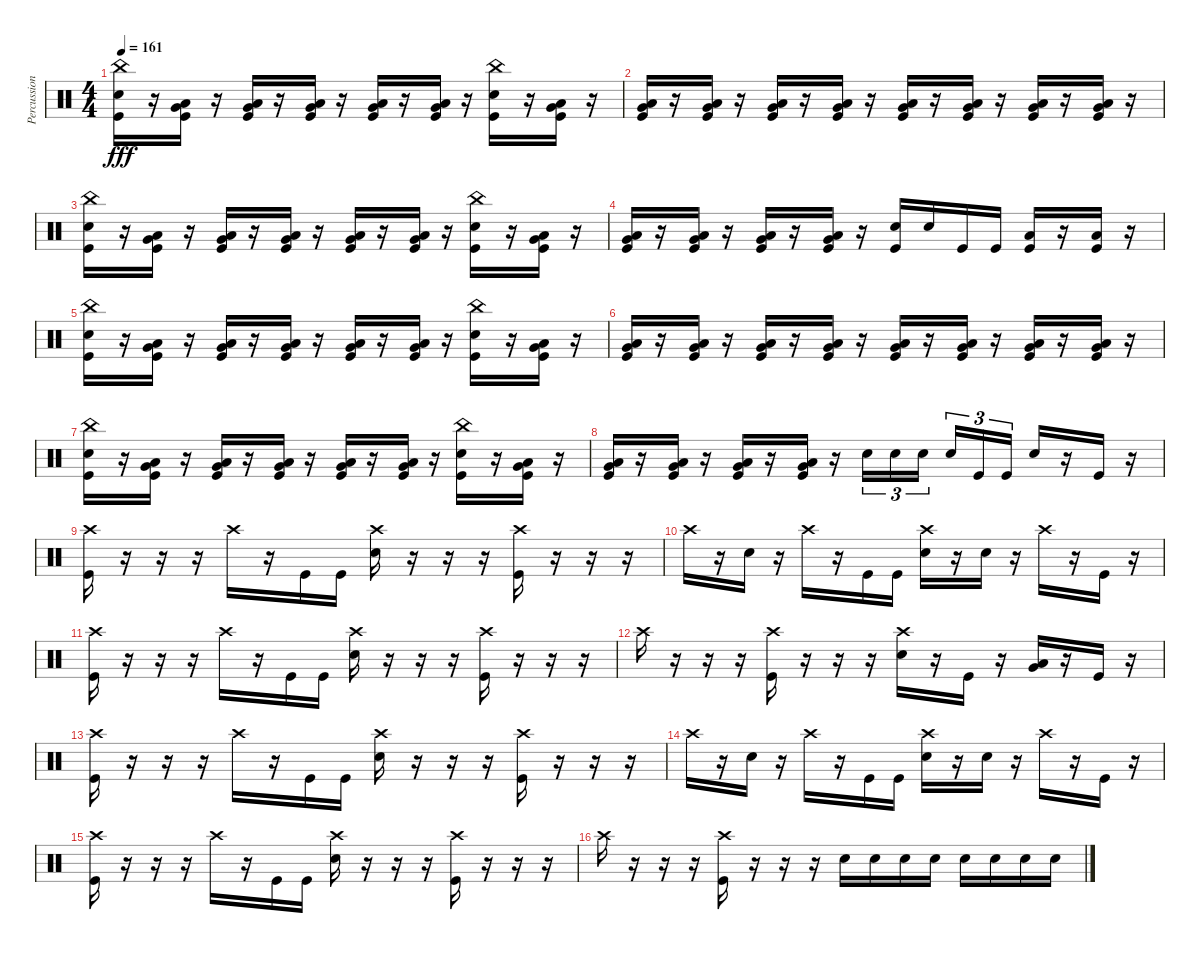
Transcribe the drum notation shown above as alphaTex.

\track ("Percussion" "Percussion") {instrument percussion}
\staff {score}
\articulation defaults
\ts (4 4)
\tempo 161
\clef neutral
\ks c
("China (hit)" "Electric Snare (hit)" "Kick (hit)").16{dy fff} r.16 ("Very Low Tom (hit)" "Low Tom (hit)" "Kick (hit)").16 r.16 ("Very Low Tom (hit)" "Low Tom (hit)" "Kick (hit)").16 r.16 ("Very Low Tom (hit)" "Low Tom (hit)" "Kick (hit)").16 r.16 ("Very Low Tom (hit)" "Low Tom (hit)" "Kick (hit)").16 r.16 ("Very Low Tom (hit)" "Low Tom (hit)" "Kick (hit)").16 r.16 ("China (hit)" "Electric Snare (hit)" "Kick (hit)").16 r.16 ("Very Low Tom (hit)" "Low Tom (hit)" "Kick (hit)").16 r.16 |
("Very Low Tom (hit)" "Low Tom (hit)" "Kick (hit)").16 r.16 ("Very Low Tom (hit)" "Low Tom (hit)" "Kick (hit)").16 r.16 ("Very Low Tom (hit)" "Low Tom (hit)" "Kick (hit)").16 r.16 ("Very Low Tom (hit)" "Low Tom (hit)" "Kick (hit)").16 r.16 ("Very Low Tom (hit)" "Low Tom (hit)" "Kick (hit)").16 r.16 ("Very Low Tom (hit)" "Low Tom (hit)" "Kick (hit)").16 r.16 ("Very Low Tom (hit)" "Low Tom (hit)" "Kick (hit)").16 r.16 ("Very Low Tom (hit)" "Low Tom (hit)" "Kick (hit)").16 r.16 |
("China (hit)" "Electric Snare (hit)" "Kick (hit)").16 r.16 ("Very Low Tom (hit)" "Low Tom (hit)" "Kick (hit)").16 r.16 ("Very Low Tom (hit)" "Low Tom (hit)" "Kick (hit)").16 r.16 ("Very Low Tom (hit)" "Low Tom (hit)" "Kick (hit)").16 r.16 ("Very Low Tom (hit)" "Low Tom (hit)" "Kick (hit)").16 r.16 ("Very Low Tom (hit)" "Low Tom (hit)" "Kick (hit)").16 r.16 ("China (hit)" "Electric Snare (hit)" "Kick (hit)").16 r.16 ("Very Low Tom (hit)" "Low Tom (hit)" "Kick (hit)").16 r.16 |
("Very Low Tom (hit)" "Low Tom (hit)" "Kick (hit)").16 r.16 ("Very Low Tom (hit)" "Low Tom (hit)" "Kick (hit)").16 r.16 ("Very Low Tom (hit)" "Low Tom (hit)" "Kick (hit)").16 r.16 ("Very Low Tom (hit)" "Low Tom (hit)" "Kick (hit)").16 r.16 ("Electric Snare (hit)" "Kick (hit)").16 "Electric Snare (hit)".16 "Kick (hit)".16 "Kick (hit)".16 ("Low Tom (hit)" "Kick (hit)").16 r.16 ("Low Tom (hit)" "Kick (hit)").16 r.16 |
("China (hit)" "Electric Snare (hit)" "Kick (hit)").16 r.16 ("Very Low Tom (hit)" "Low Tom (hit)" "Kick (hit)").16 r.16 ("Very Low Tom (hit)" "Low Tom (hit)" "Kick (hit)").16 r.16 ("Very Low Tom (hit)" "Low Tom (hit)" "Kick (hit)").16 r.16 ("Very Low Tom (hit)" "Low Tom (hit)" "Kick (hit)").16 r.16 ("Very Low Tom (hit)" "Low Tom (hit)" "Kick (hit)").16 r.16 ("China (hit)" "Electric Snare (hit)" "Kick (hit)").16 r.16 ("Very Low Tom (hit)" "Low Tom (hit)" "Kick (hit)").16 r.16 |
("Very Low Tom (hit)" "Low Tom (hit)" "Kick (hit)").16 r.16 ("Very Low Tom (hit)" "Low Tom (hit)" "Kick (hit)").16 r.16 ("Very Low Tom (hit)" "Low Tom (hit)" "Kick (hit)").16 r.16 ("Very Low Tom (hit)" "Low Tom (hit)" "Kick (hit)").16 r.16 ("Very Low Tom (hit)" "Low Tom (hit)" "Kick (hit)").16 r.16 ("Very Low Tom (hit)" "Low Tom (hit)" "Kick (hit)").16 r.16 ("Very Low Tom (hit)" "Low Tom (hit)" "Kick (hit)").16 r.16 ("Very Low Tom (hit)" "Low Tom (hit)" "Kick (hit)").16 r.16 |
("China (hit)" "Electric Snare (hit)" "Kick (hit)").16 r.16 ("Very Low Tom (hit)" "Low Tom (hit)" "Kick (hit)").16 r.16 ("Very Low Tom (hit)" "Low Tom (hit)" "Kick (hit)").16 r.16 ("Very Low Tom (hit)" "Low Tom (hit)" "Kick (hit)").16 r.16 ("Very Low Tom (hit)" "Low Tom (hit)" "Kick (hit)").16 r.16 ("Very Low Tom (hit)" "Low Tom (hit)" "Kick (hit)").16 r.16 ("China (hit)" "Electric Snare (hit)" "Kick (hit)").16 r.16 ("Very Low Tom (hit)" "Low Tom (hit)" "Kick (hit)").16 r.16 |
("Very Low Tom (hit)" "Low Tom (hit)" "Kick (hit)").16 r.16 ("Very Low Tom (hit)" "Low Tom (hit)" "Kick (hit)").16 r.16 ("Very Low Tom (hit)" "Low Tom (hit)" "Kick (hit)").16 r.16 ("Very Low Tom (hit)" "Low Tom (hit)" "Kick (hit)").16 r.16 "Electric Snare (hit)".16{tu (3 2)} "Electric Snare (hit)".16{tu (3 2)} "Electric Snare (hit)".16{tu (3 2)} "Electric Snare (hit)".16{tu (3 2)} "Kick (hit)".16{tu (3 2)} "Kick (hit)".16{tu (3 2)} "Electric Snare (hit)".16 r.16 "Kick (hit)".16 r.16 |
("Crash high (hit)" "Kick (hit)").16 r.16 r.16 r.16 "Crash high (hit)".16 r.16 "Kick (hit)".16 "Kick (hit)".16 ("Crash high (hit)" "Electric Snare (hit)").16 r.16 r.16 r.16 ("Crash high (hit)" "Kick (hit)").16 r.16 r.16 r.16 |
"Crash high (hit)".16 r.16 "Electric Snare (hit)".16 r.16 "Crash high (hit)".16 r.16 "Kick (hit)".16 "Kick (hit)".16 ("Crash high (hit)" "Electric Snare (hit)").16 r.16 "Electric Snare (hit)".16 r.16 "Crash high (hit)".16 r.16 "Kick (hit)".16 r.16 |
("Crash high (hit)" "Kick (hit)").16 r.16 r.16 r.16 "Crash high (hit)".16 r.16 "Kick (hit)".16 "Kick (hit)".16 ("Crash high (hit)" "Electric Snare (hit)").16 r.16 r.16 r.16 ("Crash high (hit)" "Kick (hit)").16 r.16 r.16 r.16 |
"Crash high (hit)".16 r.16 r.16 r.16 ("Crash high (hit)" "Kick (hit)").16 r.16 r.16 r.16 ("Crash high (hit)" "Electric Snare (hit)").16 r.16 "Kick (hit)".16 r.16 ("Very Low Tom (hit)" "Low Tom (hit)").16 r.16 "Kick (hit)".16 r.16 |
("Crash high (hit)" "Kick (hit)").16 r.16 r.16 r.16 "Crash high (hit)".16 r.16 "Kick (hit)".16 "Kick (hit)".16 ("Crash high (hit)" "Electric Snare (hit)").16 r.16 r.16 r.16 ("Crash high (hit)" "Kick (hit)").16 r.16 r.16 r.16 |
"Crash high (hit)".16 r.16 "Electric Snare (hit)".16 r.16 "Crash high (hit)".16 r.16 "Kick (hit)".16 "Kick (hit)".16 ("Crash high (hit)" "Electric Snare (hit)").16 r.16 "Electric Snare (hit)".16 r.16 "Crash high (hit)".16 r.16 "Kick (hit)".16 r.16 |
("Crash high (hit)" "Kick (hit)").16 r.16 r.16 r.16 "Crash high (hit)".16 r.16 "Kick (hit)".16 "Kick (hit)".16 ("Crash high (hit)" "Electric Snare (hit)").16 r.16 r.16 r.16 ("Crash high (hit)" "Kick (hit)").16 r.16 r.16 r.16 |
"Crash high (hit)".16 r.16 r.16 r.16 ("Crash high (hit)" "Kick (hit)").16 r.16 r.16 r.16 "Electric Snare (hit)".16 "Electric Snare (hit)".16 "Electric Snare (hit)".16 "Electric Snare (hit)".16 "Electric Snare (hit)".16 "Electric Snare (hit)".16 "Electric Snare (hit)".16 "Electric Snare (hit)".16
